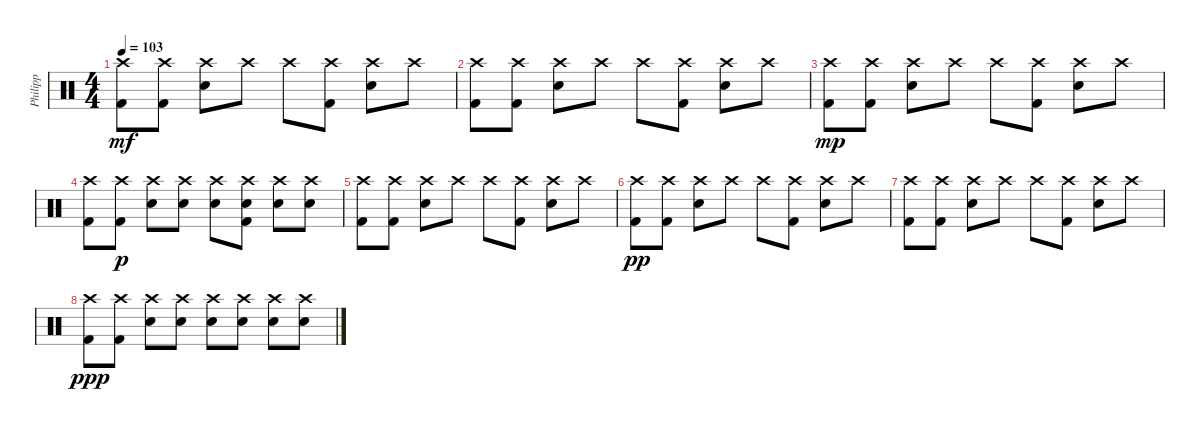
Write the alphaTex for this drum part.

\track ("Philipp" "Philipp") {instrument percussion}
\staff {score}
\articulation defaults
\ts (4 4)
\tempo 103
\clef neutral
\ks c
("Crash high (hit)" "Kick (hit) 2").8{dy mf} ("Crash high (hit)" "Kick (hit) 2").8 ("Crash high (hit)" "Electric Snare (hit)").8 "Crash high (hit)".8 "Crash high (hit)".8 ("Crash high (hit)" "Kick (hit) 2").8 ("Crash high (hit)" "Electric Snare (hit)").8 "Crash high (hit)".8 |
("Crash high (hit)" "Kick (hit) 2").8 ("Crash high (hit)" "Kick (hit) 2").8 ("Crash high (hit)" "Electric Snare (hit)").8 "Crash high (hit)".8 "Crash high (hit)".8 ("Crash high (hit)" "Kick (hit) 2").8 ("Crash high (hit)" "Electric Snare (hit)").8 "Crash high (hit)".8 |
("Crash high (hit)" "Kick (hit) 2").8{dy mp} ("Crash high (hit)" "Kick (hit) 2").8 ("Crash high (hit)" "Electric Snare (hit)").8 "Crash high (hit)".8 "Crash high (hit)".8 ("Crash high (hit)" "Kick (hit) 2").8 ("Crash high (hit)" "Electric Snare (hit)").8 "Crash high (hit)".8 |
("Crash high (hit)" "Kick (hit) 2").8 ("Crash high (hit)" "Kick (hit) 2").8{dy p} ("Crash high (hit)" "Electric Snare (hit)").8 ("Crash high (hit)" "Electric Snare (hit)").8 ("Crash high (hit)" "Electric Snare (hit)").8 ("Crash high (hit)" "Electric Snare (hit)" "Kick (hit) 2").8 ("Crash high (hit)" "Electric Snare (hit)").8 ("Crash high (hit)" "Electric Snare (hit)").8 |
("Crash high (hit)" "Kick (hit) 2").8 ("Crash high (hit)" "Kick (hit) 2").8 ("Crash high (hit)" "Electric Snare (hit)").8 "Crash high (hit)".8 "Crash high (hit)".8 ("Crash high (hit)" "Kick (hit) 2").8 ("Crash high (hit)" "Electric Snare (hit)").8 "Crash high (hit)".8 |
("Crash high (hit)" "Kick (hit) 2").8{dy pp} ("Crash high (hit)" "Kick (hit) 2").8 ("Crash high (hit)" "Electric Snare (hit)").8 "Crash high (hit)".8 "Crash high (hit)".8 ("Crash high (hit)" "Kick (hit) 2").8 ("Crash high (hit)" "Electric Snare (hit)").8 "Crash high (hit)".8 |
("Crash high (hit)" "Kick (hit) 2").8 ("Crash high (hit)" "Kick (hit) 2").8 ("Crash high (hit)" "Electric Snare (hit)").8 "Crash high (hit)".8 "Crash high (hit)".8 ("Crash high (hit)" "Kick (hit) 2").8 ("Crash high (hit)" "Electric Snare (hit)").8 "Crash high (hit)".8 |
("Crash high (hit)" "Kick (hit) 2").8{dy ppp} ("Crash high (hit)" "Kick (hit) 2").8 ("Crash high (hit)" "Electric Snare (hit)").8 ("Crash high (hit)" "Electric Snare (hit)").8 ("Crash high (hit)" "Electric Snare (hit)").8 ("Crash high (hit)" "Electric Snare (hit)").8 ("Crash high (hit)" "Electric Snare (hit)").8 ("Crash high (hit)" "Electric Snare (hit)").8
